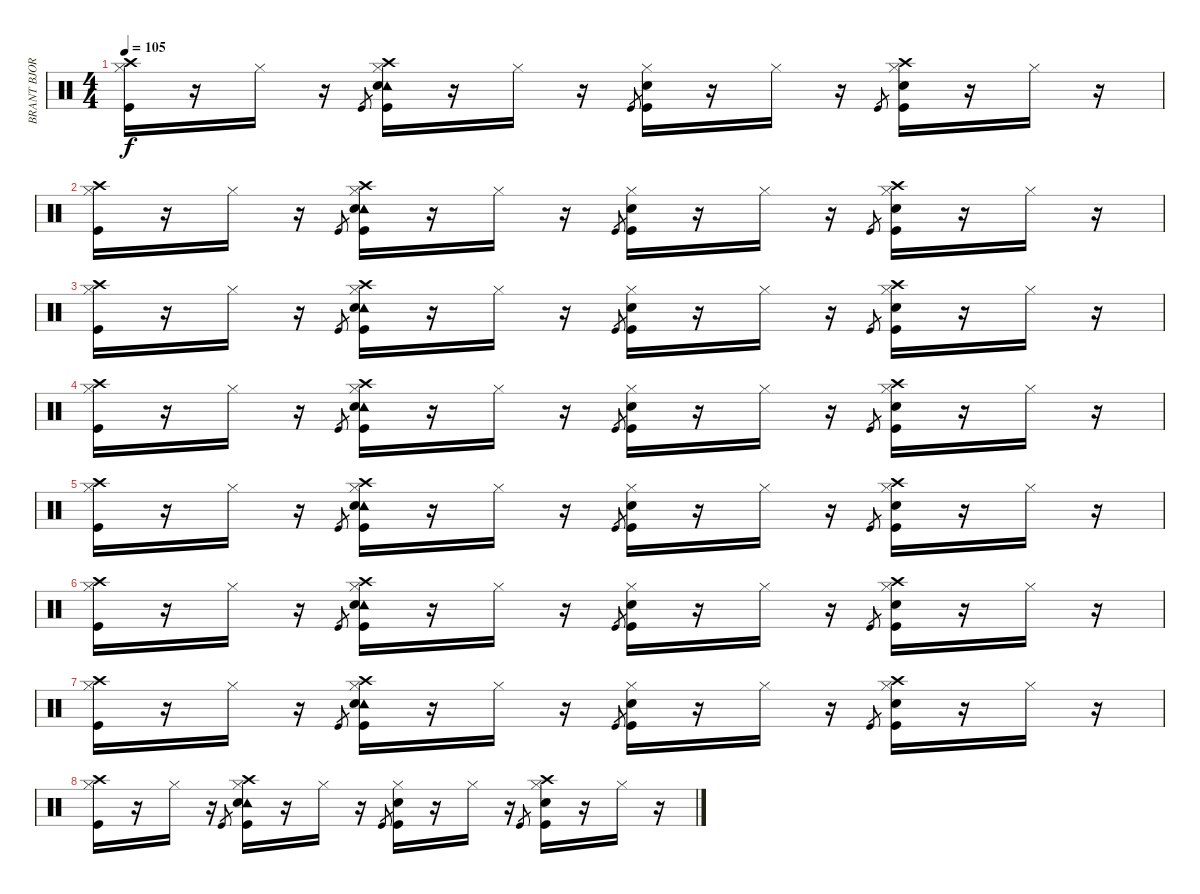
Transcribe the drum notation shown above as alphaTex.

\track ("BRANT BJORK -  DRUMS" "BRANT BJOR") {instrument percussion}
\staff {score}
\articulation defaults
\ts (4 4)
\tempo 105
\clef neutral
\ks c
("Crash high (hit)" "Hi-Hat (closed)" "Kick (hit)").16{dy f} r.16 "Hi-Hat (closed)".16 r.16 "Kick (hit)".8{gr} ("Crash high (hit)" "Hi-Hat (closed)" "Tambourine (hit)" "Snare (hit) 2" "Kick (hit)").16 r.16 "Hi-Hat (closed)".16 r.16 "Kick (hit)".8{gr} ("Hi-Hat (closed)" "Snare (hit) 2" "Kick (hit)").16 r.16 "Hi-Hat (closed)".16 r.16 "Kick (hit)".8{gr} ("Crash high (hit)" "Hi-Hat (closed)" "Snare (hit) 2" "Kick (hit)").16 r.16 "Hi-Hat (closed)".16 r.16 |
("Crash high (hit)" "Hi-Hat (closed)" "Kick (hit)").16 r.16 "Hi-Hat (closed)".16 r.16 "Kick (hit)".8{gr} ("Crash high (hit)" "Hi-Hat (closed)" "Tambourine (hit)" "Snare (hit) 2" "Kick (hit)").16 r.16 "Hi-Hat (closed)".16 r.16 "Kick (hit)".8{gr} ("Hi-Hat (closed)" "Snare (hit) 2" "Kick (hit)").16 r.16 "Hi-Hat (closed)".16 r.16 "Kick (hit)".8{gr} ("Crash high (hit)" "Hi-Hat (closed)" "Snare (hit) 2" "Kick (hit)").16 r.16 "Hi-Hat (closed)".16 r.16 |
("Crash high (hit)" "Hi-Hat (closed)" "Kick (hit)").16 r.16 "Hi-Hat (closed)".16 r.16 "Kick (hit)".8{gr} ("Crash high (hit)" "Hi-Hat (closed)" "Tambourine (hit)" "Snare (hit) 2" "Kick (hit)").16 r.16 "Hi-Hat (closed)".16 r.16 "Kick (hit)".8{gr} ("Hi-Hat (closed)" "Snare (hit) 2" "Kick (hit)").16 r.16 "Hi-Hat (closed)".16 r.16 "Kick (hit)".8{gr} ("Crash high (hit)" "Hi-Hat (closed)" "Snare (hit) 2" "Kick (hit)").16 r.16 "Hi-Hat (closed)".16 r.16 |
("Crash high (hit)" "Hi-Hat (closed)" "Kick (hit)").16 r.16 "Hi-Hat (closed)".16 r.16 "Kick (hit)".8{gr} ("Crash high (hit)" "Hi-Hat (closed)" "Tambourine (hit)" "Snare (hit) 2" "Kick (hit)").16 r.16 "Hi-Hat (closed)".16 r.16 "Kick (hit)".8{gr} ("Hi-Hat (closed)" "Snare (hit) 2" "Kick (hit)").16 r.16 "Hi-Hat (closed)".16 r.16 "Kick (hit)".8{gr} ("Crash high (hit)" "Hi-Hat (closed)" "Snare (hit) 2" "Kick (hit)").16 r.16 "Hi-Hat (closed)".16 r.16 |
("Crash high (hit)" "Hi-Hat (closed)" "Kick (hit)").16 r.16 "Hi-Hat (closed)".16 r.16 "Kick (hit)".8{gr} ("Crash high (hit)" "Hi-Hat (closed)" "Tambourine (hit)" "Snare (hit) 2" "Kick (hit)").16 r.16 "Hi-Hat (closed)".16 r.16 "Kick (hit)".8{gr} ("Hi-Hat (closed)" "Snare (hit) 2" "Kick (hit)").16 r.16 "Hi-Hat (closed)".16 r.16 "Kick (hit)".8{gr} ("Crash high (hit)" "Hi-Hat (closed)" "Snare (hit) 2" "Kick (hit)").16 r.16 "Hi-Hat (closed)".16 r.16 |
("Crash high (hit)" "Hi-Hat (closed)" "Kick (hit)").16 r.16 "Hi-Hat (closed)".16 r.16 "Kick (hit)".8{gr} ("Crash high (hit)" "Hi-Hat (closed)" "Tambourine (hit)" "Snare (hit) 2" "Kick (hit)").16 r.16 "Hi-Hat (closed)".16 r.16 "Kick (hit)".8{gr} ("Hi-Hat (closed)" "Snare (hit) 2" "Kick (hit)").16 r.16 "Hi-Hat (closed)".16 r.16 "Kick (hit)".8{gr} ("Crash high (hit)" "Hi-Hat (closed)" "Snare (hit) 2" "Kick (hit)").16 r.16 "Hi-Hat (closed)".16 r.16 |
("Crash high (hit)" "Hi-Hat (closed)" "Kick (hit)").16 r.16 "Hi-Hat (closed)".16 r.16 "Kick (hit)".8{gr} ("Crash high (hit)" "Hi-Hat (closed)" "Tambourine (hit)" "Snare (hit) 2" "Kick (hit)").16 r.16 "Hi-Hat (closed)".16 r.16 "Kick (hit)".8{gr} ("Hi-Hat (closed)" "Snare (hit) 2" "Kick (hit)").16 r.16 "Hi-Hat (closed)".16 r.16 "Kick (hit)".8{gr} ("Crash high (hit)" "Hi-Hat (closed)" "Snare (hit) 2" "Kick (hit)").16 r.16 "Hi-Hat (closed)".16 r.16 |
("Crash high (hit)" "Hi-Hat (closed)" "Kick (hit)").16 r.16 "Hi-Hat (closed)".16 r.16 "Kick (hit)".8{gr} ("Crash high (hit)" "Hi-Hat (closed)" "Tambourine (hit)" "Snare (hit) 2" "Kick (hit)").16 r.16 "Hi-Hat (closed)".16 r.16 "Kick (hit)".8{gr} ("Hi-Hat (closed)" "Snare (hit) 2" "Kick (hit)").16 r.16 "Hi-Hat (closed)".16 r.16 "Kick (hit)".8{gr} ("Crash high (hit)" "Hi-Hat (closed)" "Snare (hit) 2" "Kick (hit)").16 r.16 "Hi-Hat (closed)".16 r.16
